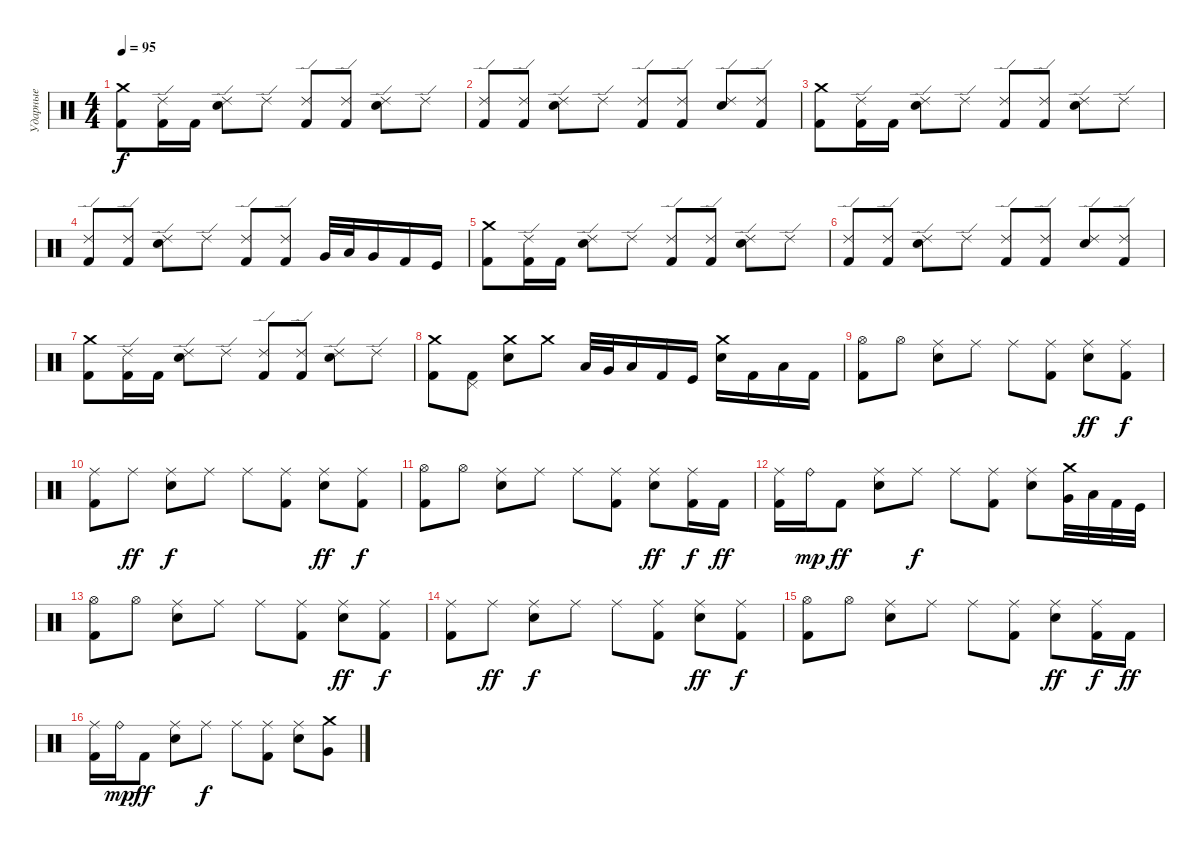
\track ("Ударные" "Ударные") {instrument percussion}
\staff {score}
\articulation defaults
\ts (4 4)
\tempo 95
\clef neutral
\ks c
("Kick (hit) 2" "Crash medium (hit)").8{dy f} ("Kick (hit) 2" "Ride (edge) 2").16 "Kick (hit) 2".16 ("Electric Snare (hit)" "Ride (edge) 2").8 "Ride (edge) 2".8 ("Kick (hit) 2" "Ride (edge) 2").8 ("Kick (hit) 2" "Ride (edge) 2").8 ("Electric Snare (hit)" "Ride (edge) 2").8 "Ride (edge) 2".8 |
("Kick (hit) 2" "Ride (edge) 2").8 ("Kick (hit) 2" "Ride (edge) 2").8 ("Electric Snare (hit)" "Ride (edge) 2").8 "Ride (edge) 2".8 ("Kick (hit) 2" "Ride (edge) 2").8 ("Kick (hit) 2" "Ride (edge) 2").8 ("Electric Snare (hit)" "Ride (edge) 2").8 ("Kick (hit) 2" "Ride (edge) 2").8 |
("Kick (hit) 2" "Crash medium (hit)").8 ("Kick (hit) 2" "Ride (edge) 2").16 "Kick (hit) 2".16 ("Electric Snare (hit)" "Ride (edge) 2").8 "Ride (edge) 2".8 ("Kick (hit) 2" "Ride (edge) 2").8 ("Kick (hit) 2" "Ride (edge) 2").8 ("Electric Snare (hit)" "Ride (edge) 2").8 "Ride (edge) 2".8 |
("Kick (hit) 2" "Ride (edge) 2").8 ("Kick (hit) 2" "Ride (edge) 2").8 ("Electric Snare (hit)" "Ride (edge) 2").8 "Ride (edge) 2".8 ("Kick (hit) 2" "Ride (edge) 2").8 ("Kick (hit) 2" "Ride (edge) 2").8 "Very Low Tom (hit)".32 "Low Tom (hit)".32 "Very Low Tom (hit)".16 "Kick (hit) 2".16 "Kick (hit)".16 |
("Kick (hit) 2" "Crash medium (hit)").8 ("Kick (hit) 2" "Ride (edge) 2").16 "Kick (hit) 2".16 ("Electric Snare (hit)" "Ride (edge) 2").8 "Ride (edge) 2".8 ("Kick (hit) 2" "Ride (edge) 2").8 ("Kick (hit) 2" "Ride (edge) 2").8 ("Electric Snare (hit)" "Ride (edge) 2").8 "Ride (edge) 2".8 |
("Kick (hit) 2" "Ride (edge) 2").8 ("Kick (hit) 2" "Ride (edge) 2").8 ("Electric Snare (hit)" "Ride (edge) 2").8 "Ride (edge) 2".8 ("Kick (hit) 2" "Ride (edge) 2").8 ("Kick (hit) 2" "Ride (edge) 2").8 ("Electric Snare (hit)" "Ride (edge) 2").8 ("Kick (hit) 2" "Ride (edge) 2").8 |
("Kick (hit) 2" "Crash medium (hit)").8 ("Kick (hit) 2" "Ride (edge) 2").16 "Kick (hit) 2".16 ("Electric Snare (hit)" "Ride (edge) 2").8 "Ride (edge) 2".8 ("Kick (hit) 2" "Ride (edge) 2").8 ("Kick (hit) 2" "Ride (edge) 2").8 ("Electric Snare (hit)" "Ride (edge) 2").8 "Ride (edge) 2".8 |
("Kick (hit) 2" "Crash medium (hit)").8 ("Kick (hit) 2" "Pedal Hi-Hat (hit)").8 ("Electric Snare (hit)" "Crash medium (hit)").8 "Crash medium (hit)".8 "Low Tom (hit)".32 "Very Low Tom (hit)".32 "Low Floor Tom (hit)".16 "Kick (hit) 2".16 "Kick (hit)".16 ("Crash medium (hit)" "Electric Snare (hit)").16 "Kick (hit) 2".16 "Low Tom (hit)".16 "Kick (hit) 2".16 |
("Kick (hit) 2" "Hi-Hat (open)").8 "Hi-Hat (open)".8 ("Ride (middle)" "Electric Snare (hit)").8 "Ride (middle)".8 "Ride (middle)".8 ("Kick (hit) 2" "Ride (middle)").8 ("Electric Snare (hit)" "Ride (middle)").8{dy ff} ("Kick (hit) 2" "Ride (middle)").8{dy f} |
("Kick (hit) 2" "Ride (middle)").8 "Ride (middle)".8{dy ff} ("Ride (middle)" "Electric Snare (hit)").8{dy f} "Ride (middle)".8 "Ride (middle)".8 ("Kick (hit) 2" "Ride (middle)").8 ("Electric Snare (hit)" "Ride (middle)").8{dy ff} ("Kick (hit) 2" "Ride (middle)").8{dy f} |
("Kick (hit) 2" "Hi-Hat (open)").8 "Hi-Hat (open)".8 ("Ride (middle)" "Electric Snare (hit)").8 "Ride (middle)".8 "Ride (middle)".8 ("Kick (hit) 2" "Ride (middle)").8 ("Electric Snare (hit)" "Ride (middle)").8{dy ff} ("Kick (hit) 2" "Ride (middle)").16{dy f} "Kick (hit) 2".16{dy ff} |
("Kick (hit) 2" "Ride (middle)").16 "Ride (bell)".16{dy mp} "Kick (hit) 2".8{dy ff} ("Electric Snare (hit)" "Ride (middle)").8 "Ride (middle)".8{dy f} "Ride (middle)".8 ("Kick (hit) 2" "Ride (middle)").8 ("Electric Snare (hit)" "Ride (middle)").8 ("Very Low Tom (hit)" "Crash medium (hit)").32 "Low Floor Tom (hit)".32 "Kick (hit) 2".32 "Kick (hit)".32 |
("Kick (hit) 2" "Hi-Hat (open)").8 "Hi-Hat (open)".8 ("Ride (middle)" "Electric Snare (hit)").8 "Ride (middle)".8 "Ride (middle)".8 ("Kick (hit) 2" "Ride (middle)").8 ("Electric Snare (hit)" "Ride (middle)").8{dy ff} ("Kick (hit) 2" "Ride (middle)").8{dy f} |
("Kick (hit) 2" "Ride (middle)").8 "Ride (middle)".8{dy ff} ("Ride (middle)" "Electric Snare (hit)").8{dy f} "Ride (middle)".8 "Ride (middle)".8 ("Kick (hit) 2" "Ride (middle)").8 ("Electric Snare (hit)" "Ride (middle)").8{dy ff} ("Kick (hit) 2" "Ride (middle)").8{dy f} |
("Kick (hit) 2" "Hi-Hat (open)").8 "Hi-Hat (open)".8 ("Ride (middle)" "Electric Snare (hit)").8 "Ride (middle)".8 "Ride (middle)".8 ("Kick (hit) 2" "Ride (middle)").8 ("Electric Snare (hit)" "Ride (middle)").8{dy ff} ("Kick (hit) 2" "Ride (middle)").16{dy f} "Kick (hit) 2".16{dy ff} |
("Kick (hit) 2" "Ride (middle)").16 "Ride (bell)".16{dy mp} "Kick (hit) 2".8{dy ff} ("Electric Snare (hit)" "Ride (middle)").8 "Ride (middle)".8{dy f} "Ride (middle)".8 ("Kick (hit) 2" "Ride (middle)").8 ("Electric Snare (hit)" "Ride (middle)").8 ("Very Low Tom (hit)" "Crash medium (hit)").8
